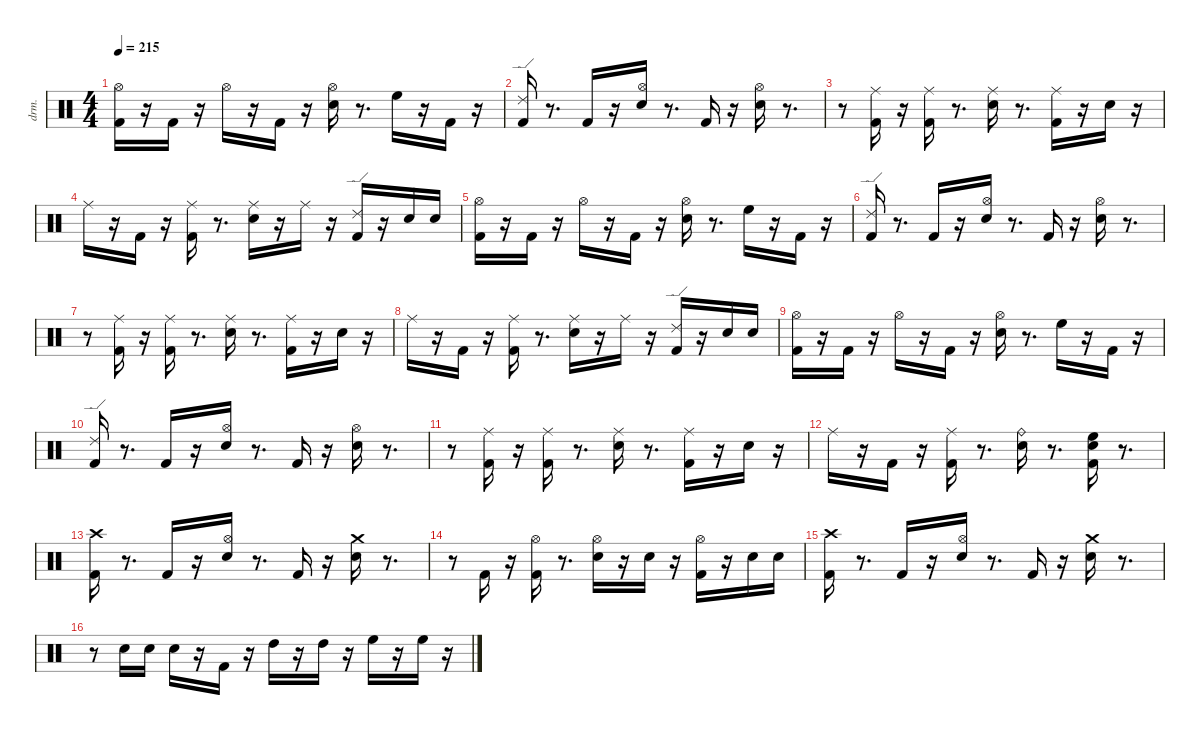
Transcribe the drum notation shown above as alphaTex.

\defaultSystemsLayout 4
\hideDynamics
\bracketExtendMode nobrackets
\otherSystemsTrackNameOrientation horizontal
\track ("drums(暫定)" "drm.") {instrument percussion}
\staff {score}
\articulation defaults
\ts (4 4)
\tempo 215
\clef neutral
\ks aminor
("Kick (hit) 2" "Hi-Hat (open)"{acc #}).16{dy f beam Down} r.16{beam Down} "Kick (hit) 2".16{dy fff beam Up} r.16{beam Up} "Hi-Hat (open)"{acc #}.16{dy mp beam Down} r.16{beam Down} "Kick (hit) 2".16{dy ff beam Up} r.16{beam Up} ("Snare (hit) 2" "Hi-Hat (open)"{acc #}).16{beam Down} r.8{d beam Down} "High Floor Tom (hit)".16{beam Down} r.16{beam Down} "Kick (hit) 2".16{dy f beam Up} r.16{beam Up} |
("Kick (hit) 2" "Ride (edge) 2").16{dy fff beam Up} r.8{d beam Up} "Kick (hit) 2".16{dy ff beam Up} r.16{beam Up} ("Snare (hit) 2" "Hi-Hat (open)"{acc #}).16{beam Down} r.8{d beam Down} "Kick (hit) 2".16{beam Up} r.16{beam Up} ("Snare (hit) 2" "Hi-Hat (open)"{acc #}).16{beam Down} r.8{d beam Down} |
r.8{beam Down} ("Kick (hit) 2" "Ride (middle)"{acc #}).16{dy f beam Down} r.16{beam Down} ("Kick (hit) 2" "Ride (middle)"{acc #}).16{dy fff beam Down} r.8{d beam Down} ("Snare (hit) 2" "Ride (middle)"{acc #}).16{dy ff beam Down} r.8{d beam Down} ("Kick (hit) 2" "Ride (middle)"{acc #}).16{beam Down} r.16{beam Down} "Snare (hit) 2".16{beam Down} r.16{beam Down} |
"Ride (middle)"{acc #}.16{dy fff beam Down} r.16{beam Down} "Kick (hit) 2".16{dy ff beam Up} r.16{beam Up} ("Kick (hit) 2" "Ride (middle)"{acc #}).16{beam Down} r.8{d beam Down} ("Snare (hit) 2" "Ride (middle)"{acc #}).16{beam Down} r.16{beam Down} "Ride (middle)"{acc #}.16{dy ppp beam Down} r.16{beam Down} ("Kick (hit) 2" "Ride (edge) 2").16{dy ff beam Up} r.16{beam Up} "Snare (hit) 2".16{dy mp beam Down} "Snare (hit) 2".16{dy pp beam Down} |
("Kick (hit) 2" "Hi-Hat (open)"{acc #}).16{dy f beam Down} r.16{beam Down} "Kick (hit) 2".16{dy fff beam Up} r.16{beam Up} "Hi-Hat (open)"{acc #}.16{dy mp beam Down} r.16{beam Down} "Kick (hit) 2".16{dy ff beam Up} r.16{beam Up} ("Snare (hit) 2" "Hi-Hat (open)"{acc #}).16{beam Down} r.8{d beam Down} "High Floor Tom (hit)".16{beam Down} r.16{beam Down} "Kick (hit) 2".16{dy f beam Up} r.16{beam Up} |
("Kick (hit) 2" "Ride (edge) 2").16{dy fff beam Up} r.8{d beam Up} "Kick (hit) 2".16{dy ff beam Up} r.16{beam Up} ("Snare (hit) 2" "Hi-Hat (open)"{acc #}).16{beam Down} r.8{d beam Down} "Kick (hit) 2".16{beam Up} r.16{beam Up} ("Snare (hit) 2" "Hi-Hat (open)"{acc #}).16{beam Down} r.8{d beam Down} |
r.8{beam Down} ("Kick (hit) 2" "Ride (middle)"{acc #}).16{dy f beam Down} r.16{beam Down} ("Kick (hit) 2" "Ride (middle)"{acc #}).16{dy fff beam Down} r.8{d beam Down} ("Snare (hit) 2" "Ride (middle)"{acc #}).16{dy ff beam Down} r.8{d beam Down} ("Kick (hit) 2" "Ride (middle)"{acc #}).16{beam Down} r.16{beam Down} "Snare (hit) 2".16{beam Down} r.16{beam Down} |
"Ride (middle)"{acc #}.16{dy fff beam Down} r.16{beam Down} "Kick (hit) 2".16{dy ff beam Up} r.16{beam Up} ("Kick (hit) 2" "Ride (middle)"{acc #}).16{beam Down} r.8{d beam Down} ("Snare (hit) 2" "Ride (middle)"{acc #}).16{beam Down} r.16{beam Down} "Ride (middle)"{acc #}.16{dy ppp beam Down} r.16{beam Down} ("Kick (hit) 2" "Ride (edge) 2").16{dy ff beam Up} r.16{beam Up} "Snare (hit) 2".16{dy mp beam Down} "Snare (hit) 2".16{dy pp beam Down} |
("Kick (hit) 2" "Hi-Hat (open)"{acc #}).16{dy f beam Down} r.16{beam Down} "Kick (hit) 2".16{dy fff beam Up} r.16{beam Up} "Hi-Hat (open)"{acc #}.16{dy mp beam Down} r.16{beam Down} "Kick (hit) 2".16{dy ff beam Up} r.16{beam Up} ("Snare (hit) 2" "Hi-Hat (open)"{acc #}).16{beam Down} r.8{d beam Down} "High Floor Tom (hit)".16{beam Down} r.16{beam Down} "Kick (hit) 2".16{dy f beam Up} r.16{beam Up} |
("Kick (hit) 2" "Ride (edge) 2").16{dy fff beam Up} r.8{d beam Up} "Kick (hit) 2".16{dy ff beam Up} r.16{beam Up} ("Snare (hit) 2" "Hi-Hat (open)"{acc #}).16{beam Down} r.8{d beam Down} "Kick (hit) 2".16{beam Up} r.16{beam Up} ("Snare (hit) 2" "Hi-Hat (open)"{acc #}).16{beam Down} r.8{d beam Down} |
r.8{beam Down} ("Kick (hit) 2" "Ride (middle)"{acc #}).16{dy f beam Down} r.16{beam Down} ("Kick (hit) 2" "Ride (middle)"{acc #}).16{dy fff beam Down} r.8{d beam Down} ("Snare (hit) 2" "Ride (middle)"{acc #}).16{dy ff beam Down} r.8{d beam Down} ("Kick (hit) 2" "Ride (middle)"{acc #}).16{beam Down} r.16{beam Down} "Snare (hit) 2".16{beam Down} r.16{beam Down} |
"Ride (middle)"{acc #}.16{dy fff beam Down} r.16{beam Down} "Kick (hit) 2".16{dy f beam Up} r.16{beam Up} ("Kick (hit) 2" "Ride (middle)"{acc #}).16{dy fff beam Down} r.8{d beam Down} ("Snare (hit) 2" "Ride (bell)").16{dy ff beam Down} r.8{d beam Down} ("Kick (hit) 2" "Snare (hit) 2" "High Floor Tom (hit)").16{dy fff beam Down} r.8{d beam Down} |
("Kick (hit) 2" "Crash high (hit)"{acc #}).16{beam Down} r.8{d beam Down} "Kick (hit) 2".16{dy f beam Up} r.16{beam Up} ("Snare (hit) 2" "Hi-Hat (open)"{acc #}).16{dy ff beam Down} r.8{d beam Down} "Kick (hit) 2".16{beam Up} r.16{beam Up} ("Snare (hit) 2" "Crash medium (hit)").16{beam Down} r.8{d beam Down} |
r.8{beam Down} "Kick (hit) 2".16{dy mf beam Up} r.16{beam Up} ("Kick (hit) 2" "Hi-Hat (open)"{acc #}).16{dy fff beam Down} r.8{d beam Down} ("Snare (hit) 2" "Hi-Hat (open)"{acc #}).16{beam Down} r.16{beam Down} "Snare (hit) 2".16{dy p beam Down} r.16{beam Down} ("Kick (hit) 2" "Hi-Hat (open)"{acc #}).16{dy ff beam Down} r.16{beam Down} "Snare (hit) 2".16{dy mp beam Down} "Snare (hit) 2".16{dy ppp beam Down} |
("Kick (hit) 2" "Crash high (hit)"{acc #}).16{dy fff beam Down} r.8{d beam Down} "Kick (hit) 2".16{dy f beam Up} r.16{beam Up} ("Snare (hit) 2" "Hi-Hat (open)"{acc #}).16{dy ff beam Down} r.8{d beam Down} "Kick (hit) 2".16{beam Up} r.16{beam Up} ("Snare (hit) 2" "Crash medium (hit)").16{beam Down} r.8{d beam Down} |
r.8{beam Down} "Snare (hit) 2".16{dy mf beam Down} "Snare (hit) 2".16{dy p beam Down} "Snare (hit) 2".16{dy ff beam Down} r.16{beam Down} "Kick (hit) 2".16{beam Up} r.16{beam Up} "High Tom (hit)".16{beam Down} r.16{beam Down} "High Tom (hit)".16{dy f beam Down} r.16{beam Down} "High Floor Tom (hit)".16{dy ff beam Down} r.16{beam Down} "High Floor Tom (hit)".16{dy f beam Down} r.16{beam Down}
